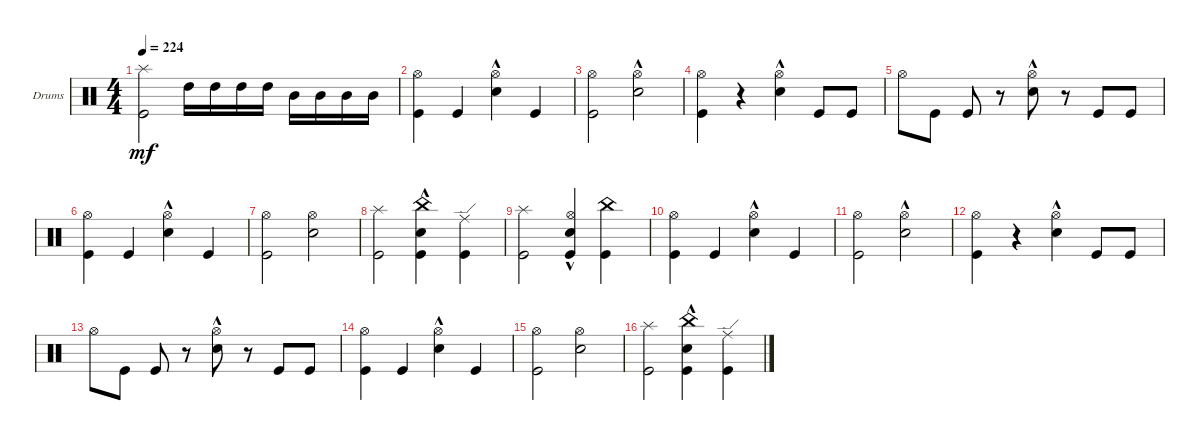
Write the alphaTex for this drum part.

\defaultSystemsLayout 4
\bracketExtendMode groupsimilarinstruments
\firstSystemTrackNameOrientation horizontal
\otherSystemsTrackNameOrientation horizontal
\track ("Drumkit" "Drums") {instrument percussion}
\staff {score}
\articulation defaults
\ts (4 4)
\tempo 224
\clef neutral
\scale
0.333333
\ks c
("Splash (hit)" "Kick (hit)").2{dy mf} "High Tom (hit)".16 "High Tom (hit)".16 "High Tom (hit)".16 "High Tom (hit)".16 "Mid Tom (hit)".16 "Mid Tom (hit)".16 "Mid Tom (hit)".16 "Mid Tom (hit)".16 |
\scale
0.333333 ("Kick (hit)" "Hi-Hat (open)").4 "Kick (hit)".4 ("Snare (hit) 2"{hac} "Hi-Hat (open)").4 "Kick (hit)".4 |
\scale
0.333333 ("Kick (hit)" "Hi-Hat (open)").2 ("Snare (hit) 2"{hac} "Hi-Hat (open)").2 |
\scale
0.333333 ("Kick (hit)" "Hi-Hat (open)").4 r.4 ("Snare (hit) 2"{hac} "Hi-Hat (open)").4 "Kick (hit)".8 "Kick (hit)".8 |
\scale
0.333333 "Hi-Hat (open)".8 "Kick (hit)".8 "Kick (hit)".8 r.8 ("Snare (hit) 2"{hac} "Hi-Hat (open)").8 r.8 "Kick (hit)".8 "Kick (hit)".8 |
\scale
0.333333 ("Kick (hit)" "Hi-Hat (open)").4 "Kick (hit)".4 ("Snare (hit) 2"{hac} "Hi-Hat (open)").4 "Kick (hit)".4 |
\scale
0.333333 ("Kick (hit)" "Hi-Hat (open)").2 ("Snare (hit) 2" "Hi-Hat (open)").2 |
\scale
0.333333 ("Splash (hit)" "Kick (hit)").2 ("Kick (hit)" "Snare (hit) 2"{hac} "China (hit)").4 ("Kick (hit)" "Ride (edge)").4 |
\scale
0.333333 ("Kick (hit)" "Splash (hit)").2 ("Kick (hit)" "Hi-Hat (open)" "Snare (hit) 2"{hac}).4 ("Kick (hit)" "China (hit)").4 |
\scale
0.333333 ("Kick (hit)" "Hi-Hat (open)").4 "Kick (hit)".4 ("Snare (hit) 2"{hac} "Hi-Hat (open)").4 "Kick (hit)".4 |
\scale
0.333333 ("Kick (hit)" "Hi-Hat (open)").2 ("Snare (hit) 2"{hac} "Hi-Hat (open)").2 |
\scale
0.333333 ("Kick (hit)" "Hi-Hat (open)").4 r.4 ("Snare (hit) 2"{hac} "Hi-Hat (open)").4 "Kick (hit)".8 "Kick (hit)".8 |
\scale
0.333333 "Hi-Hat (open)".8 "Kick (hit)".8 "Kick (hit)".8 r.8 ("Snare (hit) 2"{hac} "Hi-Hat (open)").8 r.8 "Kick (hit)".8 "Kick (hit)".8 |
\scale
0.333333 ("Kick (hit)" "Hi-Hat (open)").4 "Kick (hit)".4 ("Snare (hit) 2"{hac} "Hi-Hat (open)").4 "Kick (hit)".4 |
\scale
0.333333 ("Kick (hit)" "Hi-Hat (open)").2 ("Snare (hit) 2" "Hi-Hat (open)").2 |
\scale
0.333333 ("Splash (hit)" "Kick (hit)").2 ("Kick (hit)" "Snare (hit) 2"{hac} "China (hit)").4 ("Kick (hit)" "Ride (edge)").4
